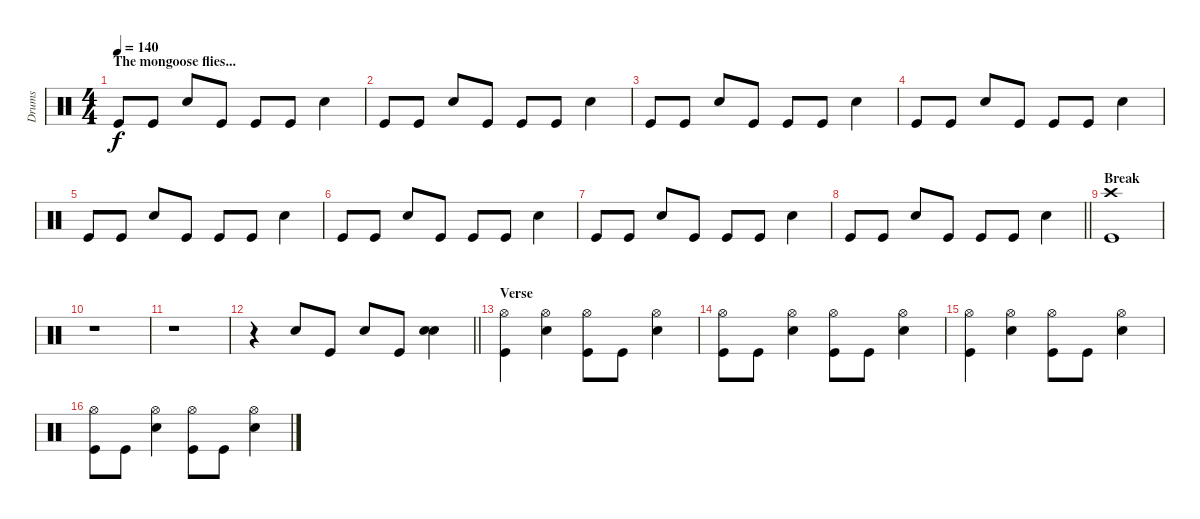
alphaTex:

\track ("Drums" "Drums") {instrument percussion}
\staff {score}
\articulation defaults
\ts (4 4)
\section ("" "The mongoose flies...")
\tempo 140
\clef neutral
\ks c "Kick (hit)".8{dy f} "Kick (hit)".8 "Electric Snare (hit)".8 "Kick (hit)".8 "Kick (hit)".8 "Kick (hit)".8 "Electric Snare (hit)".4
|
"Kick (hit)".8 "Kick (hit)".8 "Electric Snare (hit)".8 "Kick (hit)".8 "Kick (hit)".8 "Kick (hit)".8 "Electric Snare (hit)".4 |
"Kick (hit)".8 "Kick (hit)".8 "Electric Snare (hit)".8 "Kick (hit)".8 "Kick (hit)".8 "Kick (hit)".8 "Electric Snare (hit)".4 |
"Kick (hit)".8 "Kick (hit)".8 "Electric Snare (hit)".8 "Kick (hit)".8 "Kick (hit)".8 "Kick (hit)".8 "Electric Snare (hit)".4 |
"Kick (hit)".8 "Kick (hit)".8 "Electric Snare (hit)".8 "Kick (hit)".8 "Kick (hit)".8 "Kick (hit)".8 "Electric Snare (hit)".4 |
"Kick (hit)".8 "Kick (hit)".8 "Electric Snare (hit)".8 "Kick (hit)".8 "Kick (hit)".8 "Kick (hit)".8 "Electric Snare (hit)".4 |
"Kick (hit)".8 "Kick (hit)".8 "Electric Snare (hit)".8 "Kick (hit)".8 "Kick (hit)".8 "Kick (hit)".8 "Electric Snare (hit)".4 |
\barLineRight lightlight "Kick (hit)".8 "Kick (hit)".8 "Electric Snare (hit)".8 "Kick (hit)".8 "Kick (hit)".8 "Kick (hit)".8 "Electric Snare (hit)".4
|
\section ("" "Break")
("Crash high (hit)" "Kick (hit)").1 |
r.1 |
r.1 |
\barLineRight lightlight
r.4 "Electric Snare (hit)".8 "Kick (hit)".8 "Electric Snare (hit)".8 "Kick (hit)".8 ("Electric Snare (hit)" "Snare (hit) 2").4 |
\section ("" "Verse")
("Hi-Hat (open)" "Kick (hit)").4 ("Hi-Hat (open)" "Electric Snare (hit)").4 ("Hi-Hat (open)" "Kick (hit)").8 "Kick (hit)".8 ("Hi-Hat (open)" "Electric Snare (hit)").4 |
("Hi-Hat (open)" "Kick (hit)").8 "Kick (hit)".8 ("Hi-Hat (open)" "Electric Snare (hit)").4 ("Hi-Hat (open)" "Kick (hit)").8 "Kick (hit)".8 ("Hi-Hat (open)" "Electric Snare (hit)").4 |
("Hi-Hat (open)" "Kick (hit)").4 ("Hi-Hat (open)" "Electric Snare (hit)").4 ("Hi-Hat (open)" "Kick (hit)").8 "Kick (hit)".8 ("Hi-Hat (open)" "Electric Snare (hit)").4 |
("Hi-Hat (open)" "Kick (hit)").8 "Kick (hit)".8 ("Hi-Hat (open)" "Electric Snare (hit)").4 ("Hi-Hat (open)" "Kick (hit)").8 "Kick (hit)".8 ("Hi-Hat (open)" "Electric Snare (hit)").4
